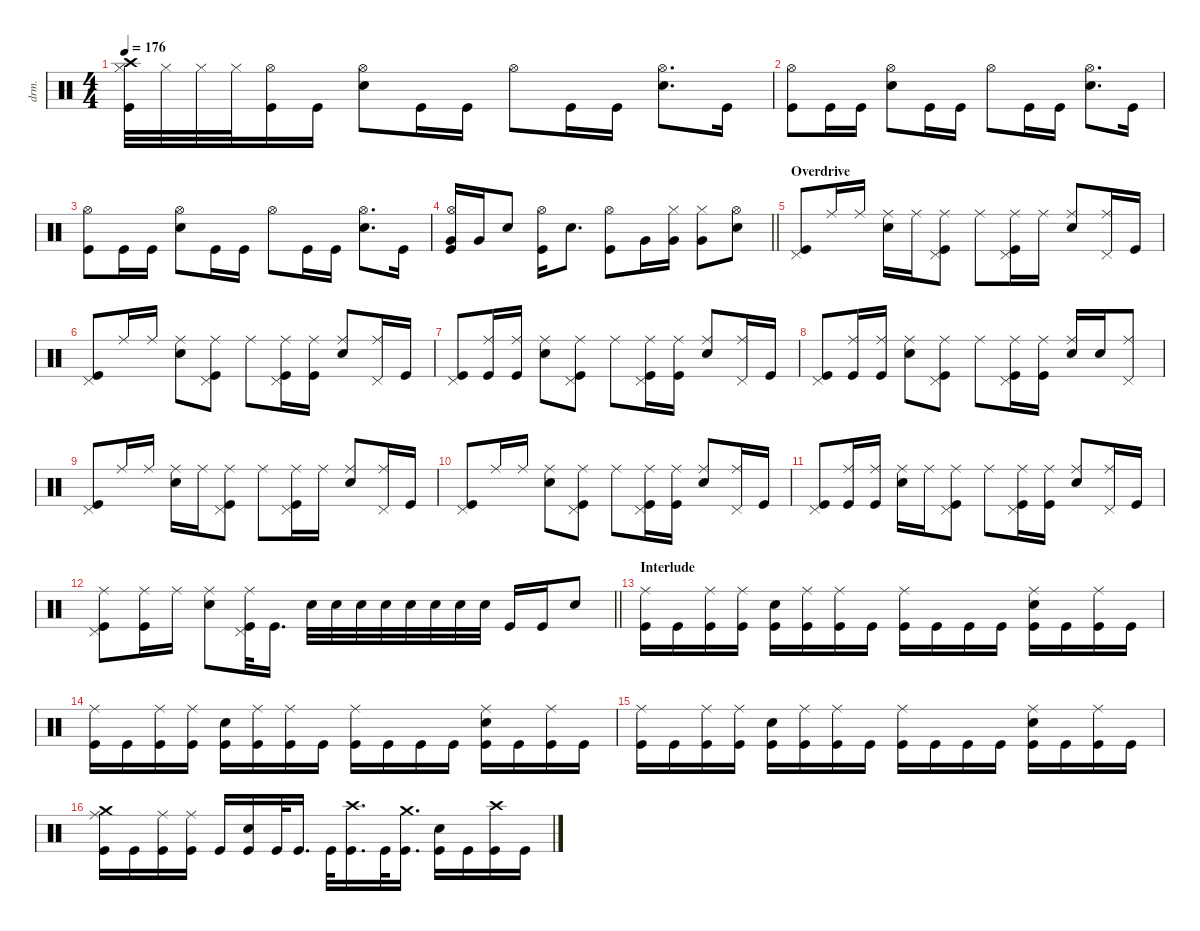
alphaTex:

\defaultSystemsLayout 4
\hideDynamics
\bracketExtendMode nobrackets
\track ("Gene Hoglan " "drm.") {instrument percussion}
\staff {score}
\articulation defaults
\ts (4 4)
\tempo 176
\clef neutral
\ks c
("Hi-Hat (closed)" "Crash high (hit)" "Kick (hit)").32{dy f} "Hi-Hat (closed)".32 "Hi-Hat (closed)".32 "Hi-Hat (closed)".32 ("Hi-Hat (open)" "Kick (hit)").16 "Kick (hit)".16 ("Hi-Hat (open)" "Snare (hit) 2").8 "Kick (hit)".16 "Kick (hit)".16 "Hi-Hat (open)".8 "Kick (hit)".16 "Kick (hit)".16 ("Hi-Hat (open)" "Snare (hit) 2").8{d} "Kick (hit)".16 |
("Hi-Hat (open)" "Kick (hit)").8 "Kick (hit)".16 "Kick (hit)".16 ("Hi-Hat (open)" "Snare (hit) 2").8 "Kick (hit)".16 "Kick (hit)".16 "Hi-Hat (open)".8 "Kick (hit)".16 "Kick (hit)".16 ("Hi-Hat (open)" "Snare (hit) 2").8{d} "Kick (hit)".16 |
("Hi-Hat (open)" "Kick (hit)").8 "Kick (hit)".16 "Kick (hit)".16 ("Hi-Hat (open)" "Snare (hit) 2").8 "Kick (hit)".16 "Kick (hit)".16 "Hi-Hat (open)".8 "Kick (hit)".16 "Kick (hit)".16 ("Hi-Hat (open)" "Snare (hit) 2").8{d} "Kick (hit)".16 |
\barLineRight lightlight
("Hi-Hat (open)" "Very Low Tom (hit)" "Kick (hit)").16 "Very Low Tom (hit)".16 "Snare (hit) 2".8 ("Hi-Hat (open)" "Kick (hit)").16 "Snare (hit) 2".8{d} ("Hi-Hat (open)" "Kick (hit)").8 "Very Low Tom (hit)".16 ("Hi-Hat (closed)" "Very Low Tom (hit)").16 ("Hi-Hat (closed)" "Very Low Tom (hit)").8 ("Hi-Hat (open)" "Snare (hit) 2").8 |
\section ("" "Overdrive")
("Pedal Hi-Hat (hit)" "Kick (hit)").8 "Ride (middle)".16 "Ride (middle)".16 ("Ride (middle)" "Snare (hit) 2").16 "Ride (middle)".16 ("Pedal Hi-Hat (hit)" "Ride (middle)" "Kick (hit)").8 "Ride (middle)".8 ("Pedal Hi-Hat (hit)" "Ride (middle)" "Kick (hit)").16 "Ride (middle)".16 ("Ride (middle)" "Snare (hit) 2").8 ("Pedal Hi-Hat (hit)" "Ride (middle)").16 "Kick (hit)".16 |
("Pedal Hi-Hat (hit)" "Kick (hit)").8 "Ride (middle)".16 "Ride (middle)".16 ("Ride (middle)" "Snare (hit) 2").8 ("Pedal Hi-Hat (hit)" "Ride (middle)" "Kick (hit)").8 "Ride (middle)".8 ("Pedal Hi-Hat (hit)" "Ride (middle)" "Kick (hit)").16 ("Ride (middle)" "Kick (hit)").16 ("Ride (middle)" "Snare (hit) 2").8 ("Pedal Hi-Hat (hit)" "Ride (middle)").16 "Kick (hit)".16 |
("Pedal Hi-Hat (hit)" "Kick (hit)").8 ("Ride (middle)" "Kick (hit)").16 ("Ride (middle)" "Kick (hit)").16 ("Ride (middle)" "Snare (hit) 2").8 ("Pedal Hi-Hat (hit)" "Ride (middle)" "Kick (hit)").8 "Ride (middle)".8 ("Pedal Hi-Hat (hit)" "Ride (middle)" "Kick (hit)").16 ("Ride (middle)" "Kick (hit)").16 ("Ride (middle)" "Snare (hit) 2").8 ("Pedal Hi-Hat (hit)" "Ride (middle)").16 "Kick (hit)".16 |
("Pedal Hi-Hat (hit)" "Kick (hit)").8 ("Ride (middle)" "Kick (hit)").16 ("Ride (middle)" "Kick (hit)").16 ("Ride (middle)" "Snare (hit) 2").8 ("Pedal Hi-Hat (hit)" "Ride (middle)" "Kick (hit)").8 "Ride (middle)".8 ("Pedal Hi-Hat (hit)" "Ride (middle)" "Kick (hit)").16 ("Ride (middle)" "Kick (hit)").16 ("Ride (middle)" "Snare (hit) 2").16 "Snare (hit) 2".16 ("Pedal Hi-Hat (hit)" "Ride (middle)").8 |
("Pedal Hi-Hat (hit)" "Kick (hit)").8 "Ride (middle)".16 "Ride (middle)".16 ("Ride (middle)" "Snare (hit) 2").16 "Ride (middle)".16 ("Pedal Hi-Hat (hit)" "Ride (middle)" "Kick (hit)").8 "Ride (middle)".8 ("Pedal Hi-Hat (hit)" "Ride (middle)" "Kick (hit)").16 "Ride (middle)".16 ("Ride (middle)" "Snare (hit) 2").8 ("Pedal Hi-Hat (hit)" "Ride (middle)").16 "Kick (hit)".16 |
("Pedal Hi-Hat (hit)" "Kick (hit)").8 "Ride (middle)".16 "Ride (middle)".16 ("Ride (middle)" "Snare (hit) 2").8 ("Pedal Hi-Hat (hit)" "Ride (middle)" "Kick (hit)").8 "Ride (middle)".8 ("Pedal Hi-Hat (hit)" "Ride (middle)" "Kick (hit)").16 ("Ride (middle)" "Kick (hit)").16 ("Ride (middle)" "Snare (hit) 2").8 ("Pedal Hi-Hat (hit)" "Ride (middle)").16 "Kick (hit)".16 |
("Pedal Hi-Hat (hit)" "Kick (hit)").8 ("Ride (middle)" "Kick (hit)").16 ("Ride (middle)" "Kick (hit)").16 ("Ride (middle)" "Snare (hit) 2").16 "Ride (middle)".16 ("Pedal Hi-Hat (hit)" "Ride (middle)" "Kick (hit)").8 "Ride (middle)".8 ("Pedal Hi-Hat (hit)" "Ride (middle)" "Kick (hit)").16 ("Ride (middle)" "Kick (hit)").16 ("Ride (middle)" "Snare (hit) 2").8 ("Pedal Hi-Hat (hit)" "Ride (middle)").16 "Kick (hit)".16 |
\barLineRight lightlight
("Pedal Hi-Hat (hit)" "Ride (middle)" "Kick (hit)").8 ("Ride (middle)" "Kick (hit)").16 "Ride (middle)".16 ("Ride (middle)" "Snare (hit) 2").8 ("Pedal Hi-Hat (hit)" "Ride (middle)" "Kick (hit)").32 "Kick (hit)".16{d} "Snare (hit) 2".32 "Snare (hit) 2".32 "Snare (hit) 2".32 "Snare (hit) 2".32 "Snare (hit) 2".32 "Snare (hit) 2".32 "Snare (hit) 2".32 "Snare (hit) 2".32 "Kick (hit)".16 "Kick (hit)".16 "Snare (hit) 2".8 |
\section ("" "Interlude")
("Ride (middle)" "Kick (hit)").16 "Kick (hit)".16 ("Ride (middle)" "Kick (hit)").16 ("Ride (middle)" "Kick (hit)").16 ("Snare (hit) 2" "Kick (hit)").16 ("Ride (middle)" "Kick (hit)").16 ("Ride (middle)" "Kick (hit)").16 "Kick (hit)".16 ("Ride (middle)" "Kick (hit)").16 "Kick (hit)".16 "Kick (hit)".16 "Kick (hit)".16 ("Ride (middle)" "Snare (hit) 2" "Kick (hit)").16 "Kick (hit)".16 ("Ride (middle)" "Kick (hit)").16 "Kick (hit)".16 |
("Ride (middle)" "Kick (hit)").16 "Kick (hit)".16 ("Ride (middle)" "Kick (hit)").16 ("Ride (middle)" "Kick (hit)").16 ("Snare (hit) 2" "Kick (hit)").16 ("Ride (middle)" "Kick (hit)").16 ("Ride (middle)" "Kick (hit)").16 "Kick (hit)".16 ("Ride (middle)" "Kick (hit)").16 "Kick (hit)".16 "Kick (hit)".16 "Kick (hit)".16 ("Ride (middle)" "Snare (hit) 2" "Kick (hit)").16 "Kick (hit)".16 ("Ride (middle)" "Kick (hit)").16 "Kick (hit)".16 |
("Ride (middle)" "Kick (hit)").16 "Kick (hit)".16 ("Ride (middle)" "Kick (hit)").16 ("Ride (middle)" "Kick (hit)").16 ("Snare (hit) 2" "Kick (hit)").16 ("Ride (middle)" "Kick (hit)").16 ("Ride (middle)" "Kick (hit)").16 "Kick (hit)".16 ("Ride (middle)" "Kick (hit)").16 "Kick (hit)".16 "Kick (hit)".16 "Kick (hit)".16 ("Ride (middle)" "Snare (hit) 2" "Kick (hit)").16 "Kick (hit)".16 ("Ride (middle)" "Kick (hit)").16 "Kick (hit)".16 |
("Crash medium (hit)" "Ride (middle)" "Kick (hit)").16 "Kick (hit)".16 ("Ride (middle)" "Kick (hit)").16 ("Ride (middle)" "Kick (hit)").16 "Kick (hit)".16 ("Snare (hit) 2" "Kick (hit)").16 "Kick (hit)".32 "Kick (hit)".16{d} "Kick (hit)".32 ("Crash high (hit)" "Kick (hit)").16{d} "Kick (hit)".32 ("Crash medium (hit)" "Kick (hit)").16{d} ("Snare (hit) 2" "Kick (hit)").16 "Kick (hit)".16 ("Crash high (hit)" "Kick (hit)").16 "Kick (hit)".16
